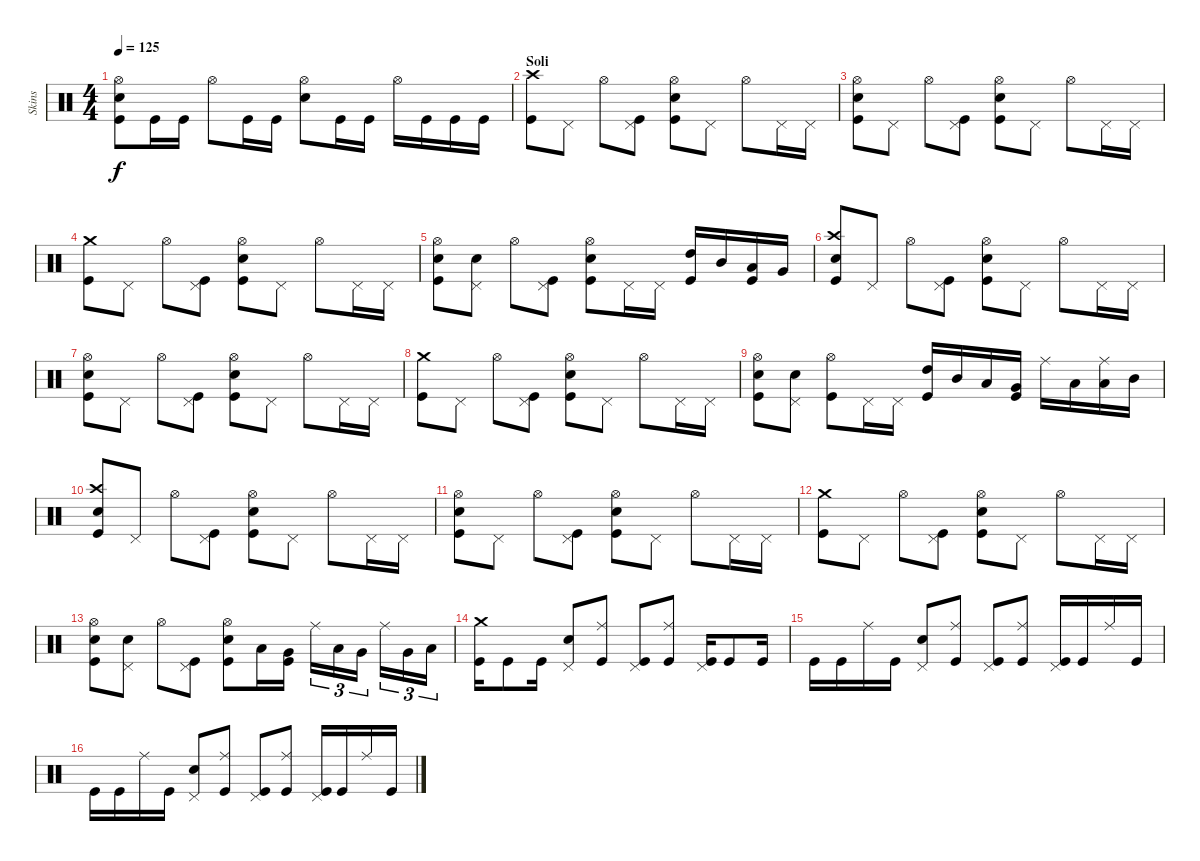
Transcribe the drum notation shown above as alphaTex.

\track ("Skins" "Skins") {instrument percussion}
\staff {score}
\articulation defaults
\ts (4 4)
\tempo 125
\clef neutral
\ks c
("Hi-Hat (open)" "Electric Snare (hit)" "Kick (hit)").8{dy f} "Kick (hit)".16 "Kick (hit)".16 "Hi-Hat (open)".8 "Kick (hit)".16 "Kick (hit)".16 ("Hi-Hat (open)" "Electric Snare (hit)").8 "Kick (hit)".16 "Kick (hit)".16 "Hi-Hat (open)".16 "Kick (hit)".16 "Kick (hit)".16 "Kick (hit)".16 |
\section ("" "Soli")
("Crash high (hit)" "Kick (hit)").8 "Pedal Hi-Hat (hit)".8 "Hi-Hat (open)".8 ("Pedal Hi-Hat (hit)" "Kick (hit)").8 ("Hi-Hat (open)" "Electric Snare (hit)" "Kick (hit)").8 "Pedal Hi-Hat (hit)".8 "Hi-Hat (open)".8 "Pedal Hi-Hat (hit)".16 "Pedal Hi-Hat (hit)".16 |
("Hi-Hat (open)" "Snare (hit) 2" "Kick (hit)").8 "Pedal Hi-Hat (hit)".8 "Hi-Hat (open)".8 ("Pedal Hi-Hat (hit)" "Kick (hit)").8 ("Hi-Hat (open)" "Electric Snare (hit)" "Kick (hit)").8 "Pedal Hi-Hat (hit)".8 "Hi-Hat (open)".8 "Pedal Hi-Hat (hit)".16 "Pedal Hi-Hat (hit)".16 |
("Crash medium (hit)" "Kick (hit)").8 "Pedal Hi-Hat (hit)".8 "Hi-Hat (open)".8 ("Pedal Hi-Hat (hit)" "Kick (hit)").8 ("Hi-Hat (open)" "Electric Snare (hit)" "Kick (hit)").8 "Pedal Hi-Hat (hit)".8 "Hi-Hat (open)".8 "Pedal Hi-Hat (hit)".16 "Pedal Hi-Hat (hit)".16 |
("Hi-Hat (open)" "Snare (hit) 2" "Kick (hit)").8 ("Pedal Hi-Hat (hit)" "Snare (hit) 2").8 "Hi-Hat (open)".8 ("Pedal Hi-Hat (hit)" "Kick (hit)").8 ("Hi-Hat (open)" "Electric Snare (hit)" "Kick (hit)").8 "Pedal Hi-Hat (hit)".16 "Pedal Hi-Hat (hit)".16 ("High Tom (hit)" "Kick (hit)").16 "Mid Tom (hit)".16 ("Low Tom (hit)" "Kick (hit)").16 "Very Low Tom (hit)".16 |
("Crash high (hit)" "Snare (hit) 2" "Kick (hit)").8 "Pedal Hi-Hat (hit)".8 "Hi-Hat (open)".8 ("Pedal Hi-Hat (hit)" "Kick (hit)").8 ("Hi-Hat (open)" "Electric Snare (hit)" "Kick (hit)").8 "Pedal Hi-Hat (hit)".8 "Hi-Hat (open)".8 "Pedal Hi-Hat (hit)".16 "Pedal Hi-Hat (hit)".16 |
("Hi-Hat (open)" "Snare (hit) 2" "Kick (hit)").8 "Pedal Hi-Hat (hit)".8 "Hi-Hat (open)".8 ("Pedal Hi-Hat (hit)" "Kick (hit)").8 ("Hi-Hat (open)" "Electric Snare (hit)" "Kick (hit)").8 "Pedal Hi-Hat (hit)".8 "Hi-Hat (open)".8 "Pedal Hi-Hat (hit)".16 "Pedal Hi-Hat (hit)".16 |
("Crash medium (hit)" "Kick (hit)").8 "Pedal Hi-Hat (hit)".8 "Hi-Hat (open)".8 ("Pedal Hi-Hat (hit)" "Kick (hit)").8 ("Hi-Hat (open)" "Electric Snare (hit)" "Kick (hit)").8 "Pedal Hi-Hat (hit)".8 "Hi-Hat (open)".8 "Pedal Hi-Hat (hit)".16 "Pedal Hi-Hat (hit)".16 |
("Hi-Hat (open)" "Snare (hit) 2" "Kick (hit)").8 ("Pedal Hi-Hat (hit)" "Snare (hit) 2").8 ("Hi-Hat (open)" "Kick (hit)").8 "Pedal Hi-Hat (hit)".16 "Pedal Hi-Hat (hit)".16 ("High Tom (hit)" "Kick (hit)").16 "Mid Tom (hit)".16 "Low Tom (hit)".16 ("Very Low Tom (hit)" "Kick (hit)").16 "Ride (middle)".16 "Low Floor Tom (hit)".16 ("Ride (middle)" "Low Tom (hit)").16 "Mid Tom (hit)".16 |
("Crash high (hit)" "Snare (hit) 2" "Kick (hit)").8 "Pedal Hi-Hat (hit)".8 "Hi-Hat (open)".8 ("Pedal Hi-Hat (hit)" "Kick (hit)").8 ("Hi-Hat (open)" "Electric Snare (hit)" "Kick (hit)").8 "Pedal Hi-Hat (hit)".8 "Hi-Hat (open)".8 "Pedal Hi-Hat (hit)".16 "Pedal Hi-Hat (hit)".16 |
("Hi-Hat (open)" "Snare (hit) 2" "Kick (hit)").8 "Pedal Hi-Hat (hit)".8 "Hi-Hat (open)".8 ("Pedal Hi-Hat (hit)" "Kick (hit)").8 ("Hi-Hat (open)" "Electric Snare (hit)" "Kick (hit)").8 "Pedal Hi-Hat (hit)".8 "Hi-Hat (open)".8 "Pedal Hi-Hat (hit)".16 "Pedal Hi-Hat (hit)".16 |
("Crash medium (hit)" "Kick (hit)").8 "Pedal Hi-Hat (hit)".8 "Hi-Hat (open)".8 ("Pedal Hi-Hat (hit)" "Kick (hit)").8 ("Hi-Hat (open)" "Electric Snare (hit)" "Kick (hit)").8 "Pedal Hi-Hat (hit)".8 "Hi-Hat (open)".8 "Pedal Hi-Hat (hit)".16 "Pedal Hi-Hat (hit)".16 |
("Hi-Hat (open)" "Snare (hit) 2" "Kick (hit)").8 ("Pedal Hi-Hat (hit)" "Snare (hit) 2").8 "Hi-Hat (open)".8 ("Pedal Hi-Hat (hit)" "Kick (hit)").8 ("Hi-Hat (open)" "Electric Snare (hit)" "Kick (hit)").8 "Low Tom (hit)".16 ("Very Low Tom (hit)" "Kick (hit)").16 "Ride (middle)".16{tu (3 2)} "Low Tom (hit)".16{tu (3 2)} "Very Low Tom (hit)".16{tu (3 2)} "Ride (middle)".16{tu (3 2)} "Very Low Tom (hit)".16{tu (3 2)} "Low Floor Tom (hit)".16{tu (3 2)} |
("Crash medium (hit)" "Kick (hit)").16 "Kick (hit)".8 "Kick (hit)".16 ("Pedal Hi-Hat (hit)" "Electric Snare (hit)").8 ("Ride (middle)" "Kick (hit)").8 ("Pedal Hi-Hat (hit)" "Kick (hit)").8 ("Ride (middle)" "Kick (hit)").8 ("Pedal Hi-Hat (hit)" "Kick (hit)").16 "Kick (hit)".8 "Kick (hit)".16 |
"Kick (hit)".16 "Kick (hit)".16 "Ride (middle)".16 "Kick (hit)".16 ("Pedal Hi-Hat (hit)" "Electric Snare (hit)").8 ("Ride (middle)" "Kick (hit)").8 ("Pedal Hi-Hat (hit)" "Kick (hit)").8 ("Ride (middle)" "Kick (hit)").8 ("Pedal Hi-Hat (hit)" "Kick (hit)").16 "Kick (hit)".16 "Ride (middle)".16 "Kick (hit)".16 |
"Kick (hit)".16 "Kick (hit)".16 "Ride (middle)".16 "Kick (hit)".16 ("Pedal Hi-Hat (hit)" "Electric Snare (hit)").8 ("Ride (middle)" "Kick (hit)").8 ("Pedal Hi-Hat (hit)" "Kick (hit)").8 ("Ride (middle)" "Kick (hit)").8 ("Pedal Hi-Hat (hit)" "Kick (hit)").16 "Kick (hit)".16 "Ride (middle)".16 "Kick (hit)".16
